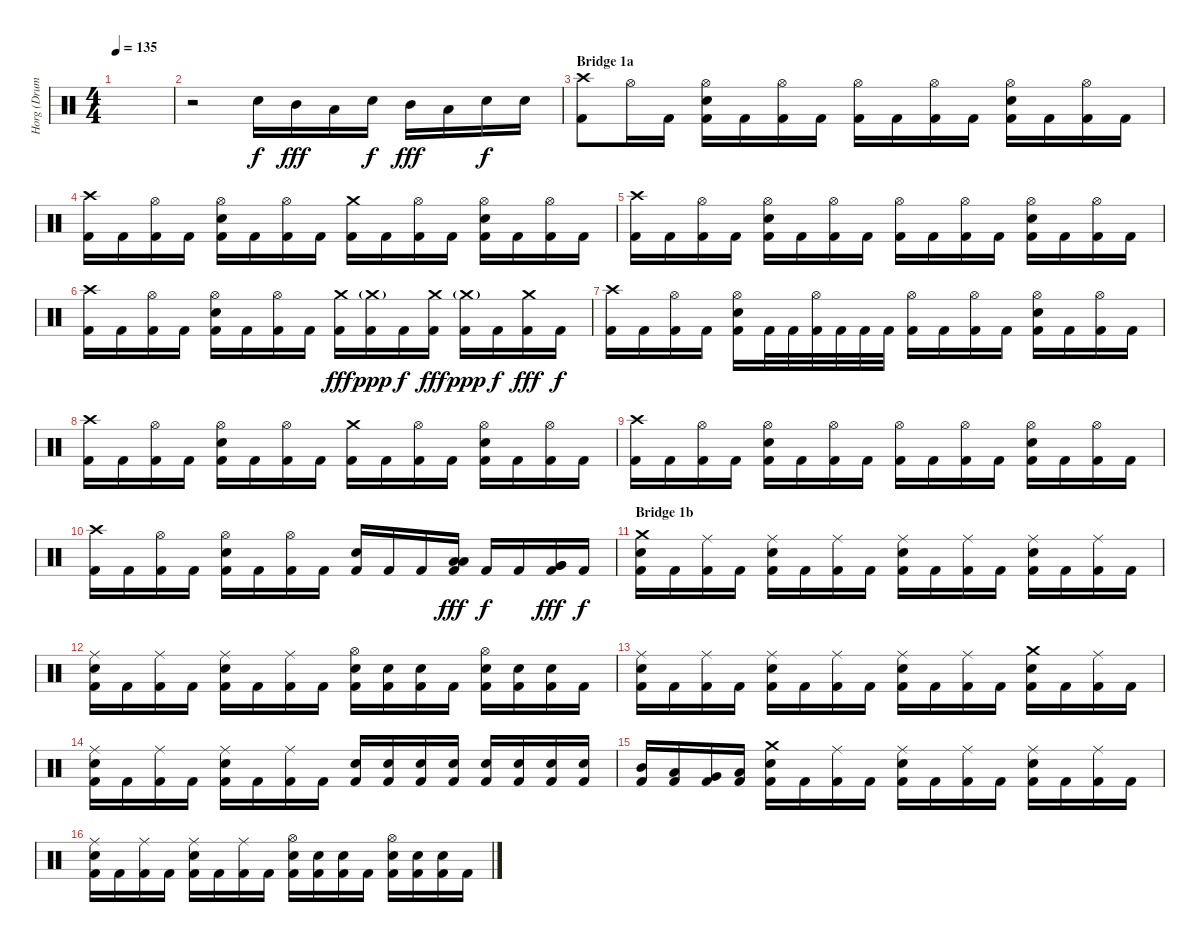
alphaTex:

\track ("Horg (Drums)" "Horg (Drum") {instrument percussion}
\staff {score}
\articulation defaults
\ts (4 4)
\tempo 135
\clef neutral
\ks c
|
r.2 "Electric Snare (hit)".16 "Mid Tom (hit)".16{dy fff} "Low Tom (hit)".16 "Electric Snare (hit)".16{dy f} "Mid Tom (hit)".16{dy fff} "Low Tom (hit)".16 "Electric Snare (hit)".16{dy f} "Electric Snare (hit)".16 |
\section ("" "Bridge 1a")
("Crash high (hit)" "Kick (hit) 2").8 "Hi-Hat (open)".16 "Kick (hit) 2".16 ("Hi-Hat (open)" "Electric Snare (hit)" "Kick (hit) 2").16 "Kick (hit) 2".16 ("Hi-Hat (open)" "Kick (hit) 2").16 "Kick (hit) 2".16 ("Hi-Hat (open)" "Kick (hit) 2").16 "Kick (hit) 2".16 ("Hi-Hat (open)" "Kick (hit) 2").16 "Kick (hit) 2".16 ("Hi-Hat (open)" "Electric Snare (hit)" "Kick (hit) 2").16 "Kick (hit) 2".16 ("Hi-Hat (open)" "Kick (hit) 2").16 "Kick (hit) 2".16 |
("Crash high (hit)" "Kick (hit) 2").16 "Kick (hit) 2".16 ("Hi-Hat (open)" "Kick (hit) 2").16 "Kick (hit) 2".16 ("Hi-Hat (open)" "Electric Snare (hit)" "Kick (hit) 2").16 "Kick (hit) 2".16 ("Hi-Hat (open)" "Kick (hit) 2").16 "Kick (hit) 2".16 ("Crash medium (hit)" "Kick (hit) 2").16 "Kick (hit) 2".16 ("Hi-Hat (open)" "Kick (hit) 2").16 "Kick (hit) 2".16 ("Hi-Hat (open)" "Electric Snare (hit)" "Kick (hit) 2").16 "Kick (hit) 2".16 ("Hi-Hat (open)" "Kick (hit) 2").16 "Kick (hit) 2".16 |
("Crash high (hit)" "Kick (hit) 2").16 "Kick (hit) 2".16 ("Hi-Hat (open)" "Kick (hit) 2").16 "Kick (hit) 2".16 ("Hi-Hat (open)" "Electric Snare (hit)" "Kick (hit) 2").16 "Kick (hit) 2".16 ("Hi-Hat (open)" "Kick (hit) 2").16 "Kick (hit) 2".16 ("Hi-Hat (open)" "Kick (hit) 2").16 "Kick (hit) 2".16 ("Hi-Hat (open)" "Kick (hit) 2").16 "Kick (hit) 2".16 ("Hi-Hat (open)" "Electric Snare (hit)" "Kick (hit) 2").16 "Kick (hit) 2".16 ("Hi-Hat (open)" "Kick (hit) 2").16 "Kick (hit) 2".16 |
("Crash high (hit)" "Kick (hit) 2").16 "Kick (hit) 2".16 ("Hi-Hat (open)" "Kick (hit) 2").16 "Kick (hit) 2".16 ("Hi-Hat (open)" "Electric Snare (hit)" "Kick (hit) 2").16 "Kick (hit) 2".16 ("Hi-Hat (open)" "Kick (hit) 2").16 "Kick (hit) 2".16 ("Crash medium (hit)" "Kick (hit) 2").16{dy fff} ("Crash medium (hit)"{g} "Kick (hit) 2").16{dy ppp} "Kick (hit) 2".16{dy f} ("Crash medium (hit)" "Kick (hit) 2").16{dy fff} ("Crash medium (hit)"{g} "Kick (hit) 2").16{dy ppp} "Kick (hit) 2".16{dy f} ("Crash medium (hit)" "Kick (hit) 2").16{dy fff} "Kick (hit) 2".16{dy f} |
("Crash high (hit)" "Kick (hit) 2").16 "Kick (hit) 2".16 ("Hi-Hat (open)" "Kick (hit) 2").16 "Kick (hit) 2".16 ("Hi-Hat (open)" "Electric Snare (hit)" "Kick (hit) 2").16 "Kick (hit) 2".32 "Kick (hit) 2".32 ("Hi-Hat (open)" "Kick (hit) 2").32 "Kick (hit) 2".32 "Kick (hit) 2".32 "Kick (hit) 2".32 ("Hi-Hat (open)" "Kick (hit) 2").16 "Kick (hit) 2".16 ("Hi-Hat (open)" "Kick (hit) 2").16 "Kick (hit) 2".16 ("Hi-Hat (open)" "Electric Snare (hit)" "Kick (hit) 2").16 "Kick (hit) 2".16 ("Hi-Hat (open)" "Kick (hit) 2").16 "Kick (hit) 2".16 |
("Crash high (hit)" "Kick (hit) 2").16 "Kick (hit) 2".16 ("Hi-Hat (open)" "Kick (hit) 2").16 "Kick (hit) 2".16 ("Hi-Hat (open)" "Electric Snare (hit)" "Kick (hit) 2").16 "Kick (hit) 2".16 ("Hi-Hat (open)" "Kick (hit) 2").16 "Kick (hit) 2".16 ("Crash medium (hit)" "Kick (hit) 2").16 "Kick (hit) 2".16 ("Hi-Hat (open)" "Kick (hit) 2").16 "Kick (hit) 2".16 ("Hi-Hat (open)" "Electric Snare (hit)" "Kick (hit) 2").16 "Kick (hit) 2".16 ("Hi-Hat (open)" "Kick (hit) 2").16 "Kick (hit) 2".16 |
("Crash high (hit)" "Kick (hit) 2").16 "Kick (hit) 2".16 ("Hi-Hat (open)" "Kick (hit) 2").16 "Kick (hit) 2".16 ("Hi-Hat (open)" "Electric Snare (hit)" "Kick (hit) 2").16 "Kick (hit) 2".16 ("Hi-Hat (open)" "Kick (hit) 2").16 "Kick (hit) 2".16 ("Hi-Hat (open)" "Kick (hit) 2").16 "Kick (hit) 2".16 ("Hi-Hat (open)" "Kick (hit) 2").16 "Kick (hit) 2".16 ("Hi-Hat (open)" "Electric Snare (hit)" "Kick (hit) 2").16 "Kick (hit) 2".16 ("Hi-Hat (open)" "Kick (hit) 2").16 "Kick (hit) 2".16 |
("Crash high (hit)" "Kick (hit) 2").16 "Kick (hit) 2".16 ("Hi-Hat (open)" "Kick (hit) 2").16 "Kick (hit) 2".16 ("Hi-Hat (open)" "Electric Snare (hit)" "Kick (hit) 2").16 "Kick (hit) 2".16 ("Hi-Hat (open)" "Kick (hit) 2").16 "Kick (hit) 2".16 ("Electric Snare (hit)" "Kick (hit) 2").16 "Kick (hit) 2".16 "Kick (hit) 2".16 ("Low Tom (hit)" "Low Tom (hit)" "Kick (hit) 2").16{dy fff} "Kick (hit) 2".16{dy f} "Kick (hit) 2".16 ("Very Low Tom (hit)" "Very Low Tom (hit)" "Kick (hit) 2").16{dy fff} "Kick (hit) 2".16{dy f} |
\section ("" "Bridge 1b")
("Crash medium (hit)" "Electric Snare (hit)" "Kick (hit) 2").16 "Kick (hit) 2".16 ("Ride (middle)" "Kick (hit) 2").16 "Kick (hit) 2".16 ("Ride (middle)" "Electric Snare (hit)" "Kick (hit) 2").16 "Kick (hit) 2".16 ("Ride (middle)" "Kick (hit) 2").16 "Kick (hit) 2".16 ("Ride (middle)" "Electric Snare (hit)" "Kick (hit) 2").16 "Kick (hit) 2".16 ("Ride (middle)" "Kick (hit) 2").16 "Kick (hit) 2".16 ("Ride (middle)" "Electric Snare (hit)" "Kick (hit) 2").16 "Kick (hit) 2".16 ("Ride (middle)" "Kick (hit) 2").16 "Kick (hit) 2".16 |
("Ride (middle)" "Electric Snare (hit)" "Kick (hit) 2").16 "Kick (hit) 2".16 ("Ride (middle)" "Kick (hit) 2").16 "Kick (hit) 2".16 ("Ride (middle)" "Electric Snare (hit)" "Kick (hit) 2").16 "Kick (hit) 2".16 ("Ride (middle)" "Kick (hit) 2").16 "Kick (hit) 2".16 ("Hi-Hat (open)" "Electric Snare (hit)" "Kick (hit) 2").16 ("Electric Snare (hit)" "Kick (hit) 2").16 ("Electric Snare (hit)" "Kick (hit) 2").16 "Kick (hit) 2".16 ("Hi-Hat (open)" "Electric Snare (hit)" "Kick (hit) 2").16 ("Electric Snare (hit)" "Kick (hit) 2").16 ("Electric Snare (hit)" "Kick (hit) 2").16 "Kick (hit) 2".16 |
("Ride (middle)" "Electric Snare (hit)" "Kick (hit) 2").16 "Kick (hit) 2".16 ("Ride (middle)" "Kick (hit) 2").16 "Kick (hit) 2".16 ("Ride (middle)" "Electric Snare (hit)" "Kick (hit) 2").16 "Kick (hit) 2".16 ("Ride (middle)" "Kick (hit) 2").16 "Kick (hit) 2".16 ("Ride (middle)" "Electric Snare (hit)" "Kick (hit) 2").16 "Kick (hit) 2".16 ("Ride (middle)" "Kick (hit) 2").16 "Kick (hit) 2".16 ("Crash medium (hit)" "Electric Snare (hit)" "Kick (hit) 2").16 "Kick (hit) 2".16 ("Ride (middle)" "Kick (hit) 2").16 "Kick (hit) 2".16 |
("Ride (middle)" "Electric Snare (hit)" "Kick (hit) 2").16 "Kick (hit) 2".16 ("Ride (middle)" "Kick (hit) 2").16 "Kick (hit) 2".16 ("Ride (middle)" "Electric Snare (hit)" "Kick (hit) 2").16 "Kick (hit) 2".16 ("Ride (middle)" "Kick (hit) 2").16 "Kick (hit) 2".16 ("Electric Snare (hit)" "Kick (hit) 2").16 ("Electric Snare (hit)" "Kick (hit) 2").16 ("Electric Snare (hit)" "Kick (hit) 2").16 ("Electric Snare (hit)" "Kick (hit) 2").16 ("Electric Snare (hit)" "Kick (hit) 2").16 ("Electric Snare (hit)" "Kick (hit) 2").16 ("Electric Snare (hit)" "Kick (hit) 2").16 ("Electric Snare (hit)" "Kick (hit) 2").16 |
("Mid Tom (hit)" "Kick (hit) 2").16 ("Low Tom (hit)" "Kick (hit) 2").16 ("Very Low Tom (hit)" "Kick (hit) 2").16 ("Low Floor Tom (hit)" "Kick (hit) 2").16 ("Crash medium (hit)" "Electric Snare (hit)" "Kick (hit) 2").16 "Kick (hit) 2".16 ("Ride (middle)" "Kick (hit) 2").16 "Kick (hit) 2".16 ("Ride (middle)" "Electric Snare (hit)" "Kick (hit) 2").16 "Kick (hit) 2".16 ("Ride (middle)" "Kick (hit) 2").16 "Kick (hit) 2".16 ("Ride (middle)" "Electric Snare (hit)" "Kick (hit) 2").16 "Kick (hit) 2".16 ("Ride (middle)" "Kick (hit) 2").16 "Kick (hit) 2".16 |
("Ride (middle)" "Electric Snare (hit)" "Kick (hit) 2").16 "Kick (hit) 2".16 ("Ride (middle)" "Kick (hit) 2").16 "Kick (hit) 2".16 ("Ride (middle)" "Electric Snare (hit)" "Kick (hit) 2").16 "Kick (hit) 2".16 ("Ride (middle)" "Kick (hit) 2").16 "Kick (hit) 2".16 ("Hi-Hat (open)" "Electric Snare (hit)" "Kick (hit) 2").16 ("Electric Snare (hit)" "Kick (hit) 2").16 ("Electric Snare (hit)" "Kick (hit) 2").16 "Kick (hit) 2".16 ("Hi-Hat (open)" "Electric Snare (hit)" "Kick (hit) 2").16 ("Electric Snare (hit)" "Kick (hit) 2").16 ("Electric Snare (hit)" "Kick (hit) 2").16 "Kick (hit) 2".16
